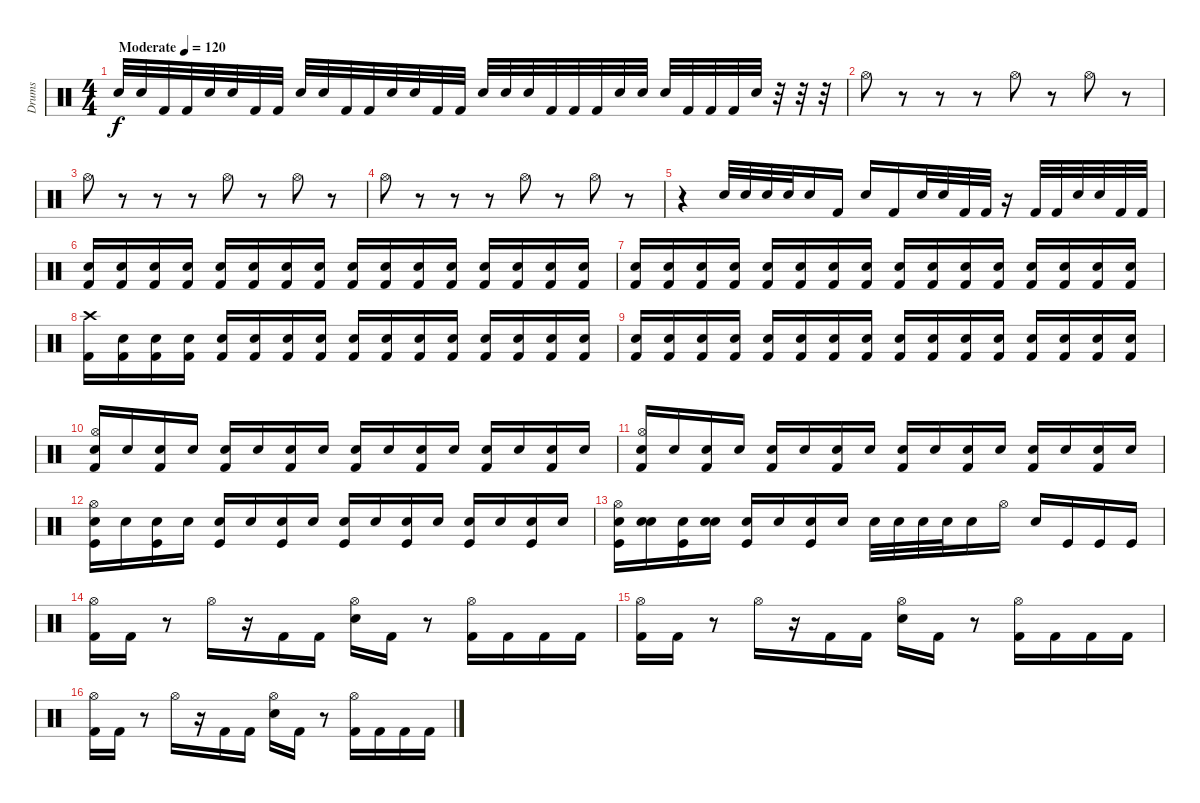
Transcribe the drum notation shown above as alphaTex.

\track ("Drums" "Drums") {instrument percussion}
\staff {score}
\articulation defaults
\ts (4 4)
\tempo (120 "Moderate")
\clef neutral
\ks c "Snare (hit) 2".32{dy f} "Snare (hit) 2".32 "Kick (hit) 2".32 "Kick (hit) 2".32 "Snare (hit) 2".32 "Snare (hit) 2".32 "Kick (hit) 2".32 "Kick (hit) 2".32 "Snare (hit) 2".32 "Snare (hit) 2".32 "Kick (hit) 2".32 "Kick (hit) 2".32 "Snare (hit) 2".32 "Snare (hit) 2".32 "Kick (hit) 2".32 "Kick (hit) 2".32 "Snare (hit) 2".32 "Snare (hit) 2".32 "Snare (hit) 2".32 "Kick (hit) 2".32 "Kick (hit) 2".32 "Kick (hit) 2".32 "Snare (hit) 2".32 "Snare (hit) 2".32 "Snare (hit) 2".32 "Kick (hit) 2".32 "Kick (hit) 2".32 "Kick (hit) 2".32 "Snare (hit) 2".32
r.32 r.32 r.32 |
"Hi-Hat (open)".8 r.8 r.8 r.8 "Hi-Hat (open)".8 r.8 "Hi-Hat (open)".8 r.8 |
"Hi-Hat (open)".8 r.8 r.8 r.8 "Hi-Hat (open)".8 r.8 "Hi-Hat (open)".8 r.8 |
"Hi-Hat (open)".8 r.8 r.8 r.8 "Hi-Hat (open)".8 r.8 "Hi-Hat (open)".8 r.8 |
r.4 "Snare (hit) 2".32 "Snare (hit) 2".32 "Snare (hit) 2".32 "Snare (hit) 2".32 "Snare (hit) 2".16 "Kick (hit) 2".16 "Snare (hit) 2".16 "Kick (hit) 2".16 "Snare (hit) 2".32 "Snare (hit) 2".32 "Kick (hit) 2".32 "Kick (hit) 2".32 r.16 "Kick (hit) 2".32 "Kick (hit) 2".32 "Snare (hit) 2".32 "Snare (hit) 2".32 "Kick (hit) 2".32 "Kick (hit) 2".32 |
("Snare (hit) 2" "Kick (hit) 2").16 ("Snare (hit) 2" "Kick (hit) 2").16 ("Snare (hit) 2" "Kick (hit) 2").16 ("Snare (hit) 2" "Kick (hit) 2").16 ("Snare (hit) 2" "Kick (hit) 2").16 ("Snare (hit) 2" "Kick (hit) 2").16 ("Snare (hit) 2" "Kick (hit) 2").16 ("Snare (hit) 2" "Kick (hit) 2").16 ("Snare (hit) 2" "Kick (hit) 2").16 ("Snare (hit) 2" "Kick (hit) 2").16 ("Snare (hit) 2" "Kick (hit) 2").16 ("Snare (hit) 2" "Kick (hit) 2").16 ("Snare (hit) 2" "Kick (hit) 2").16 ("Snare (hit) 2" "Kick (hit) 2").16 ("Snare (hit) 2" "Kick (hit) 2").16 ("Snare (hit) 2" "Kick (hit) 2").16 |
("Snare (hit) 2" "Kick (hit) 2").16 ("Snare (hit) 2" "Kick (hit) 2").16 ("Snare (hit) 2" "Kick (hit) 2").16 ("Snare (hit) 2" "Kick (hit) 2").16 ("Snare (hit) 2" "Kick (hit) 2").16 ("Snare (hit) 2" "Kick (hit) 2").16 ("Snare (hit) 2" "Kick (hit) 2").16 ("Snare (hit) 2" "Kick (hit) 2").16 ("Snare (hit) 2" "Kick (hit) 2").16 ("Snare (hit) 2" "Kick (hit) 2").16 ("Snare (hit) 2" "Kick (hit) 2").16 ("Snare (hit) 2" "Kick (hit) 2").16 ("Snare (hit) 2" "Kick (hit) 2").16 ("Snare (hit) 2" "Kick (hit) 2").16 ("Snare (hit) 2" "Kick (hit) 2").16 ("Snare (hit) 2" "Kick (hit) 2").16 |
("Crash high (hit)" "Kick (hit) 2").16 ("Snare (hit) 2" "Kick (hit) 2").16 ("Snare (hit) 2" "Kick (hit) 2").16 ("Snare (hit) 2" "Kick (hit) 2").16 ("Snare (hit) 2" "Kick (hit) 2").16 ("Snare (hit) 2" "Kick (hit) 2").16 ("Snare (hit) 2" "Kick (hit) 2").16 ("Snare (hit) 2" "Kick (hit) 2").16 ("Snare (hit) 2" "Kick (hit) 2").16 ("Snare (hit) 2" "Kick (hit) 2").16 ("Snare (hit) 2" "Kick (hit) 2").16 ("Snare (hit) 2" "Kick (hit) 2").16 ("Snare (hit) 2" "Kick (hit) 2").16 ("Snare (hit) 2" "Kick (hit) 2").16 ("Snare (hit) 2" "Kick (hit) 2").16 ("Snare (hit) 2" "Kick (hit) 2").16 |
("Snare (hit) 2" "Kick (hit) 2").16 ("Snare (hit) 2" "Kick (hit) 2").16 ("Snare (hit) 2" "Kick (hit) 2").16 ("Snare (hit) 2" "Kick (hit) 2").16 ("Snare (hit) 2" "Kick (hit) 2").16 ("Snare (hit) 2" "Kick (hit) 2").16 ("Snare (hit) 2" "Kick (hit) 2").16 ("Snare (hit) 2" "Kick (hit) 2").16 ("Snare (hit) 2" "Kick (hit) 2").16 ("Snare (hit) 2" "Kick (hit) 2").16 ("Snare (hit) 2" "Kick (hit) 2").16 ("Snare (hit) 2" "Kick (hit) 2").16 ("Snare (hit) 2" "Kick (hit) 2").16 ("Snare (hit) 2" "Kick (hit) 2").16 ("Snare (hit) 2" "Kick (hit) 2").16 ("Snare (hit) 2" "Kick (hit) 2").16 |
("Hi-Hat (open)" "Electric Snare (hit)" "Kick (hit) 2").16 "Snare (hit) 2".16 ("Electric Snare (hit)" "Kick (hit) 2").16 "Snare (hit) 2".16 ("Electric Snare (hit)" "Kick (hit) 2").16 "Snare (hit) 2".16 ("Electric Snare (hit)" "Kick (hit) 2").16 "Snare (hit) 2".16 ("Electric Snare (hit)" "Kick (hit) 2").16 "Snare (hit) 2".16 ("Electric Snare (hit)" "Kick (hit) 2").16 "Snare (hit) 2".16 ("Electric Snare (hit)" "Kick (hit) 2").16 "Snare (hit) 2".16 ("Electric Snare (hit)" "Kick (hit) 2").16 "Snare (hit) 2".16 |
("Hi-Hat (open)" "Electric Snare (hit)" "Kick (hit) 2").16 "Snare (hit) 2".16 ("Electric Snare (hit)" "Kick (hit) 2").16 "Snare (hit) 2".16 ("Electric Snare (hit)" "Kick (hit) 2").16 "Snare (hit) 2".16 ("Electric Snare (hit)" "Kick (hit) 2").16 "Snare (hit) 2".16 ("Electric Snare (hit)" "Kick (hit) 2").16 "Snare (hit) 2".16 ("Electric Snare (hit)" "Kick (hit) 2").16 "Snare (hit) 2".16 ("Electric Snare (hit)" "Kick (hit) 2").16 "Snare (hit) 2".16 ("Electric Snare (hit)" "Kick (hit) 2").16 "Snare (hit) 2".16 |
("Hi-Hat (open)" "Electric Snare (hit)" "Kick (hit)").16 "Snare (hit) 2".16 ("Electric Snare (hit)" "Kick (hit)").16 "Snare (hit) 2".16 ("Electric Snare (hit)" "Kick (hit)").16 "Snare (hit) 2".16 ("Electric Snare (hit)" "Kick (hit)").16 "Snare (hit) 2".16 ("Electric Snare (hit)" "Kick (hit)").16 "Snare (hit) 2".16 ("Electric Snare (hit)" "Kick (hit)").16 "Snare (hit) 2".16 ("Electric Snare (hit)" "Kick (hit)").16 "Snare (hit) 2".16 ("Electric Snare (hit)" "Kick (hit)").16 "Snare (hit) 2".16 |
("Hi-Hat (open)" "Electric Snare (hit)" "Kick (hit)").16 ("Snare (hit) 2" "Snare (hit) 2").16 ("Electric Snare (hit)" "Kick (hit)").16 ("Snare (hit) 2" "Snare (hit) 2").16 ("Electric Snare (hit)" "Kick (hit)").16 "Snare (hit) 2".16 ("Electric Snare (hit)" "Kick (hit)").16 "Snare (hit) 2".16 "Snare (hit) 2".32 "Snare (hit) 2".32 "Snare (hit) 2".32 "Snare (hit) 2".32 "Snare (hit) 2".16 "Hi-Hat (open)".16 "Snare (hit) 2".16 "Kick (hit)".16 "Kick (hit)".16 "Kick (hit)".16 |
("Hi-Hat (open)" "Kick (hit) 2").16 "Kick (hit) 2".16 r.8 "Hi-Hat (open)".16 r.16 "Kick (hit) 2".16 "Kick (hit) 2".16 ("Hi-Hat (open)" "Snare (hit) 2").16 "Kick (hit) 2".16 r.8 ("Hi-Hat (open)" "Kick (hit) 2").16 "Kick (hit) 2".16 "Kick (hit) 2".16 "Kick (hit) 2".16 |
("Hi-Hat (open)" "Kick (hit) 2").16 "Kick (hit) 2".16 r.8 "Hi-Hat (open)".16 r.16 "Kick (hit) 2".16 "Kick (hit) 2".16 ("Hi-Hat (open)" "Snare (hit) 2").16 "Kick (hit) 2".16 r.8 ("Hi-Hat (open)" "Kick (hit) 2").16 "Kick (hit) 2".16 "Kick (hit) 2".16 "Kick (hit) 2".16 |
("Hi-Hat (open)" "Kick (hit) 2").16 "Kick (hit) 2".16 r.8 "Hi-Hat (open)".16 r.16 "Kick (hit) 2".16 "Kick (hit) 2".16 ("Hi-Hat (open)" "Snare (hit) 2").16 "Kick (hit) 2".16 r.8 ("Hi-Hat (open)" "Kick (hit) 2").16 "Kick (hit) 2".16 "Kick (hit) 2".16 "Kick (hit) 2".16
